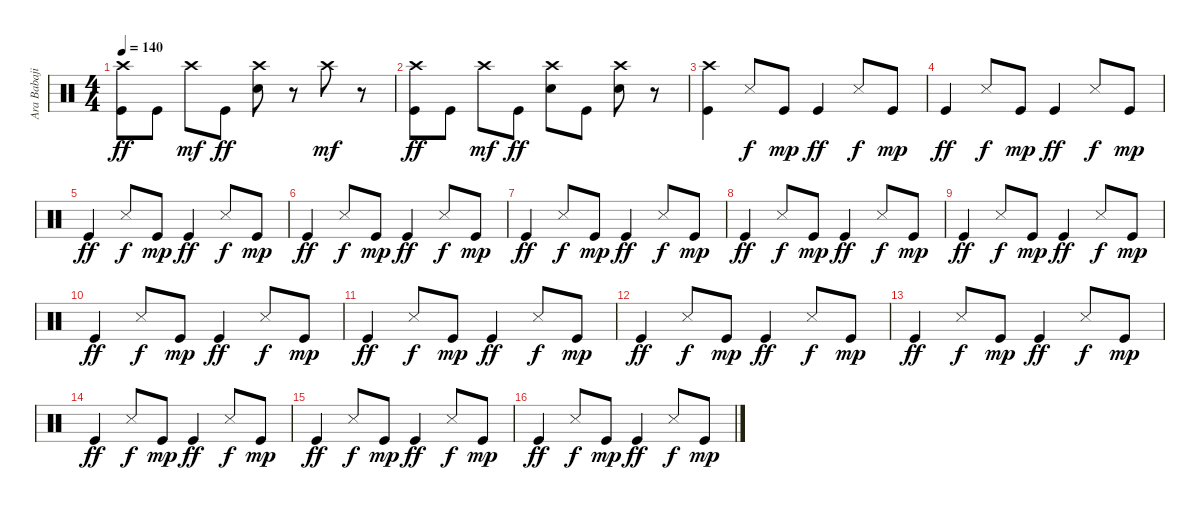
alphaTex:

\track ("Ara Babajian Drums" "Ara Babaji") {instrument percussion}
\staff {score}
\articulation defaults
\ts (4 4)
\tempo 140
\clef neutral
\ks c
("Crash high (hit)" "Kick (hit)").8{dy ff} "Kick (hit)".8 "Crash high (hit)".8{dy mf} "Kick (hit)".8{dy ff} ("Crash high (hit)" "Snare (hit) 2").8 r.8 "Crash high (hit)".8{dy mf} r.8 |
("Crash high (hit)" "Kick (hit)").8{dy ff} "Kick (hit)".8 "Crash high (hit)".8{dy mf} "Kick (hit)".8{dy ff} ("Crash high (hit)" "Snare (hit) 2").8 "Kick (hit)".8 ("Crash high (hit)" "Snare (hit) 2").8 r.8 |
("Crash high (hit)" "Kick (hit)").4 "Snare (side stick) 3".8{dy f} "Kick (hit)".8{dy mp} "Kick (hit)".4{dy ff} "Snare (side stick) 3".8{dy f} "Kick (hit)".8{dy mp} |
"Kick (hit)".4{dy ff} "Snare (side stick) 3".8{dy f} "Kick (hit)".8{dy mp} "Kick (hit)".4{dy ff} "Snare (side stick) 3".8{dy f} "Kick (hit)".8{dy mp} |
"Kick (hit)".4{dy ff} "Snare (side stick) 3".8{dy f} "Kick (hit)".8{dy mp} "Kick (hit)".4{dy ff} "Snare (side stick) 3".8{dy f} "Kick (hit)".8{dy mp} |
"Kick (hit)".4{dy ff} "Snare (side stick) 3".8{dy f} "Kick (hit)".8{dy mp} "Kick (hit)".4{dy ff} "Snare (side stick) 3".8{dy f} "Kick (hit)".8{dy mp} |
"Kick (hit)".4{dy ff} "Snare (side stick) 3".8{dy f} "Kick (hit)".8{dy mp} "Kick (hit)".4{dy ff} "Snare (side stick) 3".8{dy f} "Kick (hit)".8{dy mp} |
"Kick (hit)".4{dy ff} "Snare (side stick) 3".8{dy f} "Kick (hit)".8{dy mp} "Kick (hit)".4{dy ff} "Snare (side stick) 3".8{dy f} "Kick (hit)".8{dy mp} |
"Kick (hit)".4{dy ff} "Snare (side stick) 3".8{dy f} "Kick (hit)".8{dy mp} "Kick (hit)".4{dy ff} "Snare (side stick) 3".8{dy f} "Kick (hit)".8{dy mp} |
"Kick (hit)".4{dy ff} "Snare (side stick) 3".8{dy f} "Kick (hit)".8{dy mp} "Kick (hit)".4{dy ff} "Snare (side stick) 3".8{dy f} "Kick (hit)".8{dy mp} |
"Kick (hit)".4{dy ff} "Snare (side stick) 3".8{dy f} "Kick (hit)".8{dy mp} "Kick (hit)".4{dy ff} "Snare (side stick) 3".8{dy f} "Kick (hit)".8{dy mp} |
"Kick (hit)".4{dy ff} "Snare (side stick) 3".8{dy f} "Kick (hit)".8{dy mp} "Kick (hit)".4{dy ff} "Snare (side stick) 3".8{dy f} "Kick (hit)".8{dy mp} |
"Kick (hit)".4{dy ff} "Snare (side stick) 3".8{dy f} "Kick (hit)".8{dy mp} "Kick (hit)".4{dy ff} "Snare (side stick) 3".8{dy f} "Kick (hit)".8{dy mp} |
"Kick (hit)".4{dy ff} "Snare (side stick) 3".8{dy f} "Kick (hit)".8{dy mp} "Kick (hit)".4{dy ff} "Snare (side stick) 3".8{dy f} "Kick (hit)".8{dy mp} |
"Kick (hit)".4{dy ff} "Snare (side stick) 3".8{dy f} "Kick (hit)".8{dy mp} "Kick (hit)".4{dy ff} "Snare (side stick) 3".8{dy f} "Kick (hit)".8{dy mp} |
"Kick (hit)".4{dy ff} "Snare (side stick) 3".8{dy f} "Kick (hit)".8{dy mp} "Kick (hit)".4{dy ff} "Snare (side stick) 3".8{dy f} "Kick (hit)".8{dy mp}
